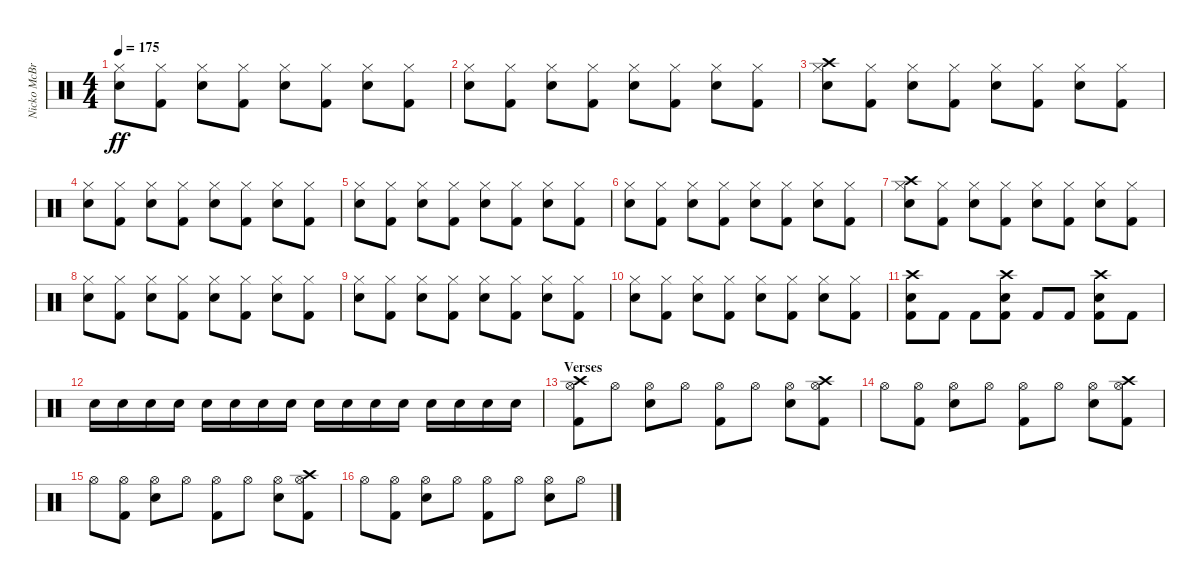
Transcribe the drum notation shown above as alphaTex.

\track ("Nicko McBrain" "Nicko McBr") {instrument percussion}
\staff {score}
\articulation defaults
\ts (4 4)
\tempo 175
\clef neutral
\ks c
("Snare (hit) 2" "Hi-Hat (closed)").8{dy ff} ("Kick (hit) 2" "Hi-Hat (closed)").8 ("Snare (hit) 2" "Hi-Hat (closed)").8 ("Kick (hit) 2" "Hi-Hat (closed)").8 ("Snare (hit) 2" "Hi-Hat (closed)").8 ("Kick (hit) 2" "Hi-Hat (closed)").8 ("Snare (hit) 2" "Hi-Hat (closed)").8 ("Kick (hit) 2" "Hi-Hat (closed)").8 |
("Snare (hit) 2" "Hi-Hat (closed)").8 ("Kick (hit) 2" "Hi-Hat (closed)").8 ("Snare (hit) 2" "Hi-Hat (closed)").8 ("Kick (hit) 2" "Hi-Hat (closed)").8 ("Snare (hit) 2" "Hi-Hat (closed)").8 ("Kick (hit) 2" "Hi-Hat (closed)").8 ("Snare (hit) 2" "Hi-Hat (closed)").8 ("Kick (hit) 2" "Hi-Hat (closed)").8 |
("Snare (hit) 2" "Hi-Hat (closed)" "Crash high (hit)").8 ("Kick (hit) 2" "Hi-Hat (closed)").8 ("Snare (hit) 2" "Hi-Hat (closed)").8 ("Kick (hit) 2" "Hi-Hat (closed)").8 ("Snare (hit) 2" "Hi-Hat (closed)").8 ("Kick (hit) 2" "Hi-Hat (closed)").8 ("Snare (hit) 2" "Hi-Hat (closed)").8 ("Kick (hit) 2" "Hi-Hat (closed)").8 |
("Snare (hit) 2" "Hi-Hat (closed)").8 ("Kick (hit) 2" "Hi-Hat (closed)").8 ("Snare (hit) 2" "Hi-Hat (closed)").8 ("Kick (hit) 2" "Hi-Hat (closed)").8 ("Snare (hit) 2" "Hi-Hat (closed)").8 ("Kick (hit) 2" "Hi-Hat (closed)").8 ("Snare (hit) 2" "Hi-Hat (closed)").8 ("Kick (hit) 2" "Hi-Hat (closed)").8 |
("Snare (hit) 2" "Hi-Hat (closed)").8 ("Kick (hit) 2" "Hi-Hat (closed)").8 ("Snare (hit) 2" "Hi-Hat (closed)").8 ("Kick (hit) 2" "Hi-Hat (closed)").8 ("Snare (hit) 2" "Hi-Hat (closed)").8 ("Kick (hit) 2" "Hi-Hat (closed)").8 ("Snare (hit) 2" "Hi-Hat (closed)").8 ("Kick (hit) 2" "Hi-Hat (closed)").8 |
("Snare (hit) 2" "Hi-Hat (closed)").8 ("Kick (hit) 2" "Hi-Hat (closed)").8 ("Snare (hit) 2" "Hi-Hat (closed)").8 ("Kick (hit) 2" "Hi-Hat (closed)").8 ("Snare (hit) 2" "Hi-Hat (closed)").8 ("Kick (hit) 2" "Hi-Hat (closed)").8 ("Snare (hit) 2" "Hi-Hat (closed)").8 ("Kick (hit) 2" "Hi-Hat (closed)").8 |
("Snare (hit) 2" "Hi-Hat (closed)" "Crash high (hit)").8 ("Kick (hit) 2" "Hi-Hat (closed)").8 ("Snare (hit) 2" "Hi-Hat (closed)").8 ("Kick (hit) 2" "Hi-Hat (closed)").8 ("Snare (hit) 2" "Hi-Hat (closed)").8 ("Kick (hit) 2" "Hi-Hat (closed)").8 ("Snare (hit) 2" "Hi-Hat (closed)").8 ("Kick (hit) 2" "Hi-Hat (closed)").8 |
("Snare (hit) 2" "Hi-Hat (closed)").8 ("Kick (hit) 2" "Hi-Hat (closed)").8 ("Snare (hit) 2" "Hi-Hat (closed)").8 ("Kick (hit) 2" "Hi-Hat (closed)").8 ("Snare (hit) 2" "Hi-Hat (closed)").8 ("Kick (hit) 2" "Hi-Hat (closed)").8 ("Snare (hit) 2" "Hi-Hat (closed)").8 ("Kick (hit) 2" "Hi-Hat (closed)").8 |
("Snare (hit) 2" "Hi-Hat (closed)").8 ("Kick (hit) 2" "Hi-Hat (closed)").8 ("Snare (hit) 2" "Hi-Hat (closed)").8 ("Kick (hit) 2" "Hi-Hat (closed)").8 ("Snare (hit) 2" "Hi-Hat (closed)").8 ("Kick (hit) 2" "Hi-Hat (closed)").8 ("Snare (hit) 2" "Hi-Hat (closed)").8 ("Kick (hit) 2" "Hi-Hat (closed)").8 |
("Snare (hit) 2" "Hi-Hat (closed)").8 ("Kick (hit) 2" "Hi-Hat (closed)").8 ("Snare (hit) 2" "Hi-Hat (closed)").8 ("Kick (hit) 2" "Hi-Hat (closed)").8 ("Snare (hit) 2" "Hi-Hat (closed)").8 ("Kick (hit) 2" "Hi-Hat (closed)").8 ("Snare (hit) 2" "Hi-Hat (closed)").8 ("Kick (hit) 2" "Hi-Hat (closed)").8 |
("Kick (hit) 2" "Snare (hit) 2" "Crash high (hit)").8 "Kick (hit) 2".8 "Kick (hit) 2".8 ("Kick (hit) 2" "Snare (hit) 2" "Crash high (hit)").8 "Kick (hit) 2".8 "Kick (hit) 2".8 ("Kick (hit) 2" "Snare (hit) 2" "Crash high (hit)").8 "Kick (hit) 2".8 |
"Snare (hit) 2".16 "Snare (hit) 2".16 "Snare (hit) 2".16 "Snare (hit) 2".16 "Snare (hit) 2".16 "Snare (hit) 2".16 "Snare (hit) 2".16 "Snare (hit) 2".16 "Snare (hit) 2".16 "Snare (hit) 2".16 "Snare (hit) 2".16 "Snare (hit) 2".16 "Snare (hit) 2".16 "Snare (hit) 2".16 "Snare (hit) 2".16 "Snare (hit) 2".16 |
\section ("" "Verses")
("Kick (hit) 2" "Hi-Hat (open)" "Crash high (hit)").8 "Hi-Hat (open)".8 ("Snare (hit) 2" "Hi-Hat (open)").8 "Hi-Hat (open)".8 ("Kick (hit) 2" "Hi-Hat (open)").8 "Hi-Hat (open)".8 ("Snare (hit) 2" "Hi-Hat (open)").8 ("Kick (hit) 2" "Hi-Hat (open)" "Crash high (hit)").8 |
"Hi-Hat (open)".8 ("Kick (hit) 2" "Hi-Hat (open)").8 ("Snare (hit) 2" "Hi-Hat (open)").8 "Hi-Hat (open)".8 ("Kick (hit) 2" "Hi-Hat (open)").8 "Hi-Hat (open)".8 ("Snare (hit) 2" "Hi-Hat (open)").8 ("Kick (hit) 2" "Hi-Hat (open)" "Crash high (hit)").8 |
"Hi-Hat (open)".8 ("Kick (hit) 2" "Hi-Hat (open)").8 ("Snare (hit) 2" "Hi-Hat (open)").8 "Hi-Hat (open)".8 ("Kick (hit) 2" "Hi-Hat (open)").8 "Hi-Hat (open)".8 ("Snare (hit) 2" "Hi-Hat (open)").8 ("Kick (hit) 2" "Hi-Hat (open)" "Crash high (hit)").8 |
"Hi-Hat (open)".8 ("Kick (hit) 2" "Hi-Hat (open)").8 ("Snare (hit) 2" "Hi-Hat (open)").8 "Hi-Hat (open)".8 ("Kick (hit) 2" "Hi-Hat (open)").8 "Hi-Hat (open)".8 ("Snare (hit) 2" "Hi-Hat (open)").8 "Hi-Hat (open)".8
